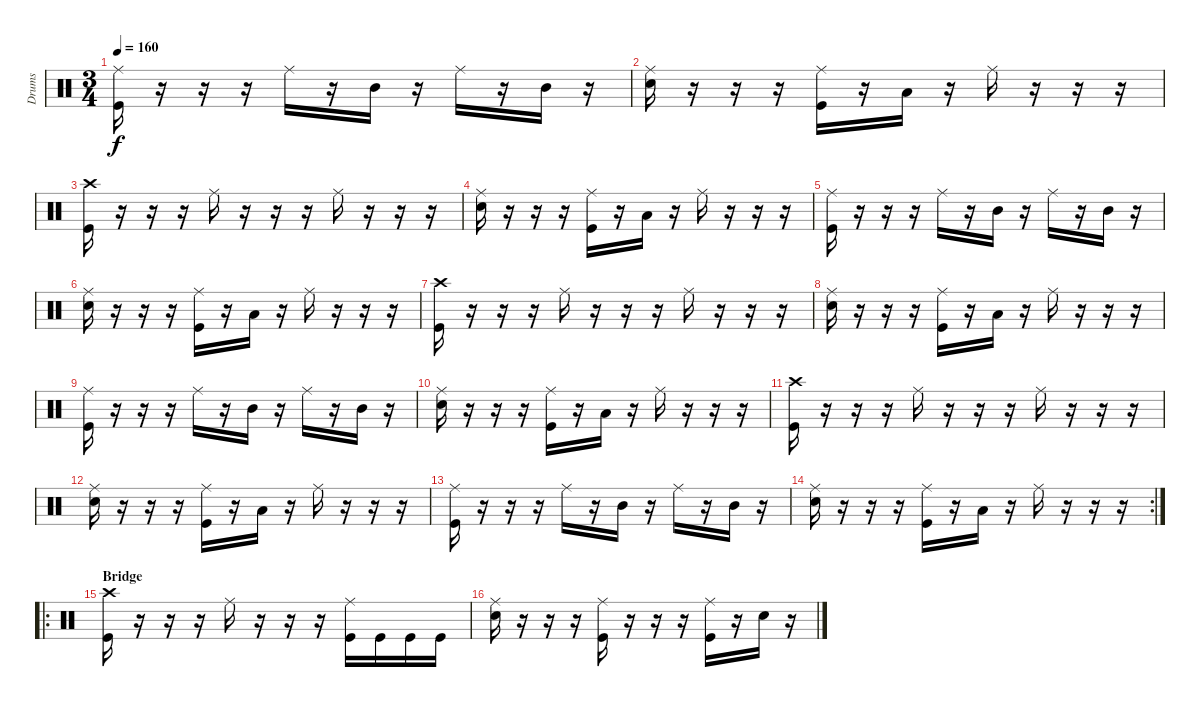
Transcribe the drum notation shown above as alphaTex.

\track ("Drums" "Drums") {instrument percussion}
\staff {score}
\articulation defaults
\ts (3 4)
\tempo 160
\clef neutral
\ks c
("Ride (middle)" "Kick (hit)").16{dy f volume 7} r.16 r.16 r.16 "Ride (middle)".16 r.16 "Mid Tom (hit)".16 r.16 "Ride (middle)".16 r.16 "Mid Tom (hit)".16 r.16 |
("Ride (middle)" "Snare (hit) 2").16 r.16 r.16 r.16 ("Ride (middle)" "Kick (hit)").16 r.16 "Low Tom (hit)".16 r.16 "Ride (middle)".16 r.16 r.16 r.16 |
("Crash high (hit)" "Kick (hit)").16{volume 7} r.16 r.16 r.16 "Ride (middle)".16 r.16 r.16 r.16 "Ride (middle)".16 r.16 r.16 r.16 |
("Ride (middle)" "Snare (hit) 2").16 r.16 r.16 r.16 ("Ride (middle)" "Kick (hit)").16 r.16 "Low Tom (hit)".16 r.16 "Ride (middle)".16 r.16 r.16 r.16 |
("Ride (middle)" "Kick (hit)").16{volume 7} r.16 r.16 r.16 "Ride (middle)".16 r.16 "Mid Tom (hit)".16 r.16 "Ride (middle)".16 r.16 "Mid Tom (hit)".16 r.16 |
("Ride (middle)" "Snare (hit) 2").16 r.16 r.16 r.16 ("Ride (middle)" "Kick (hit)").16 r.16 "Low Tom (hit)".16 r.16 "Ride (middle)".16 r.16 r.16 r.16 |
("Crash high (hit)" "Kick (hit)").16{volume 7} r.16 r.16 r.16 "Ride (middle)".16 r.16 r.16 r.16 "Ride (middle)".16 r.16 r.16 r.16 |
("Ride (middle)" "Snare (hit) 2").16 r.16 r.16 r.16 ("Ride (middle)" "Kick (hit)").16 r.16 "Low Tom (hit)".16 r.16 "Ride (middle)".16 r.16 r.16 r.16 |
("Ride (middle)" "Kick (hit)").16{volume 7} r.16 r.16 r.16 "Ride (middle)".16 r.16 "Mid Tom (hit)".16 r.16 "Ride (middle)".16 r.16 "Mid Tom (hit)".16 r.16 |
("Ride (middle)" "Snare (hit) 2").16 r.16 r.16 r.16 ("Ride (middle)" "Kick (hit)").16 r.16 "Low Tom (hit)".16 r.16 "Ride (middle)".16 r.16 r.16 r.16 |
("Crash high (hit)" "Kick (hit)").16{volume 7} r.16 r.16 r.16 "Ride (middle)".16 r.16 r.16 r.16 "Ride (middle)".16 r.16 r.16 r.16 |
("Ride (middle)" "Snare (hit) 2").16 r.16 r.16 r.16 ("Ride (middle)" "Kick (hit)").16 r.16 "Low Tom (hit)".16 r.16 "Ride (middle)".16 r.16 r.16 r.16 |
("Ride (middle)" "Kick (hit)").16{volume 7} r.16 r.16 r.16 "Ride (middle)".16 r.16 "Mid Tom (hit)".16 r.16 "Ride (middle)".16 r.16 "Mid Tom (hit)".16 r.16 |
\rc 2
("Ride (middle)" "Snare (hit) 2").16 r.16 r.16 r.16 ("Ride (middle)" "Kick (hit)").16 r.16 "Low Tom (hit)".16 r.16 "Ride (middle)".16 r.16 r.16 r.16 |
\ro
\section ("" "Bridge")
("Crash high (hit)" "Kick (hit)").16{volume 13} r.16 r.16 r.16 "Ride (middle)".16 r.16 r.16 r.16 ("Ride (middle)" "Kick (hit)").16 "Kick (hit)".16 "Kick (hit)".16 "Kick (hit)".16 |
("Ride (middle)" "Snare (hit) 2").16 r.16 r.16 r.16 ("Ride (middle)" "Kick (hit)").16 r.16 r.16 r.16 ("Ride (middle)" "Kick (hit)").16 r.16 "Snare (hit) 2".16 r.16
